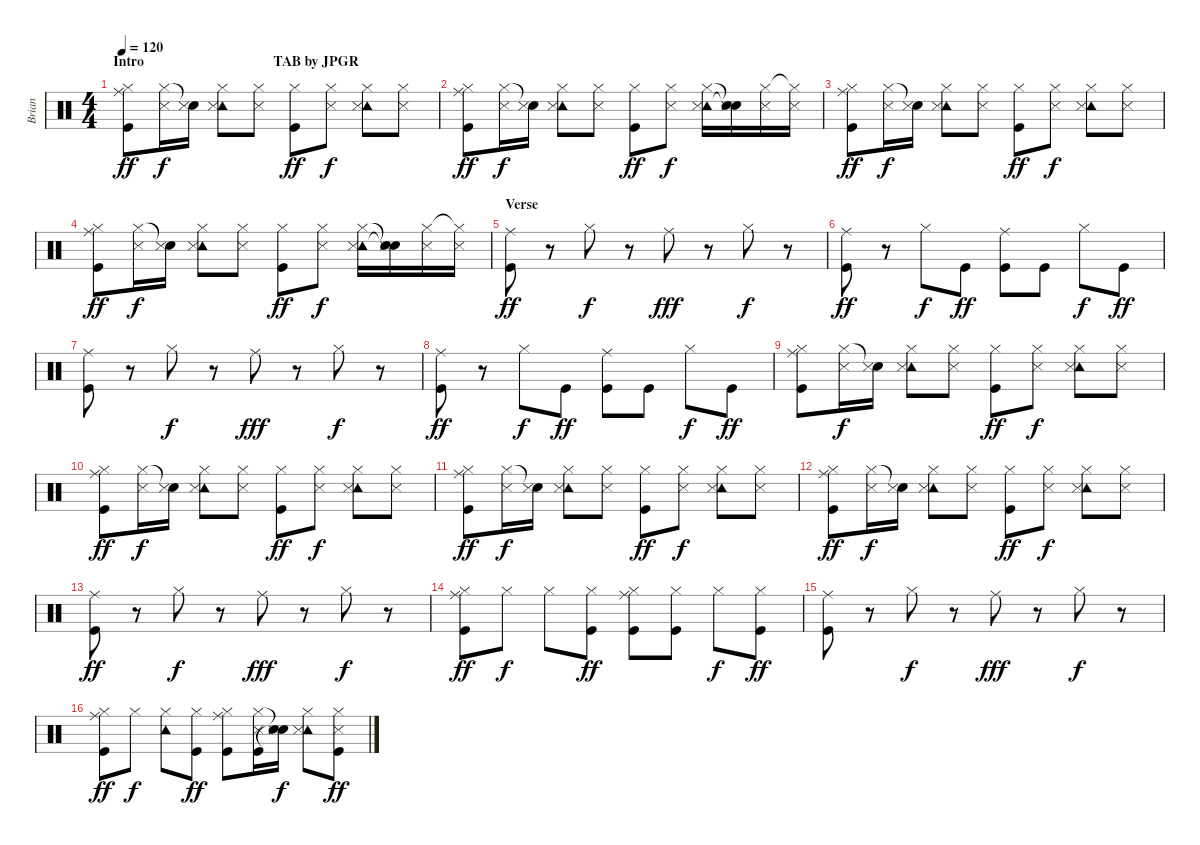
\track ("Brian" "Brian") {instrument percussion}
\staff {score}
\articulation defaults
\ts (4 4)
\section ("" "Intro                                     TAB by JPGR")
\tempo 120
\clef neutral
\ks c
("Ride (middle)" "Hi-Hat (closed)" "Kick (hit)").8{dy ff} ("Hi-Hat (closed)" "Snare (side stick) 3").16{dy f} ("Snare (hit)"{t} "Snare (side stick) 3").16 ("Tambourine (hit)" "Hi-Hat (closed)" "Snare (side stick) 3").8 ("Hi-Hat (closed)" "Snare (side stick) 3").8 ("Hi-Hat (closed)" "Kick (hit)").8{dy ff} ("Hi-Hat (closed)" "Snare (side stick) 3").8{dy f} ("Tambourine (hit)" "Hi-Hat (closed)" "Snare (side stick) 3").8 ("Hi-Hat (closed)" "Snare (side stick) 3").8 |
("Ride (middle)" "Hi-Hat (closed)" "Kick (hit)").8{dy ff} ("Hi-Hat (closed)" "Snare (side stick) 3").16{dy f} ("Snare (hit)"{t} "Snare (side stick) 3").16 ("Tambourine (hit)" "Hi-Hat (closed)" "Snare (side stick) 3").8 ("Hi-Hat (closed)" "Snare (side stick) 3").8 ("Hi-Hat (closed)" "Kick (hit)").8{dy ff} ("Hi-Hat (closed)" "Snare (side stick) 3").8{dy f} ("Tambourine (hit)" "Hi-Hat (closed)" "Snare (side stick) 3").16 ("Snare (hit)"{t} "Snare (hit)"{t} "Snare (side stick) 3").16 ("Hi-Hat (closed)" "Snare (side stick) 3").16 ("Hi-Hat (closed)"{t} "Snare (side stick) 3").16 |
("Ride (middle)" "Hi-Hat (closed)" "Kick (hit)").8{dy ff} ("Hi-Hat (closed)" "Snare (side stick) 3").16{dy f} ("Snare (hit)"{t} "Snare (side stick) 3").16 ("Tambourine (hit)" "Hi-Hat (closed)" "Snare (side stick) 3").8 ("Hi-Hat (closed)" "Snare (side stick) 3").8 ("Hi-Hat (closed)" "Kick (hit)").8{dy ff} ("Hi-Hat (closed)" "Snare (side stick) 3").8{dy f} ("Tambourine (hit)" "Hi-Hat (closed)" "Snare (side stick) 3").8 ("Hi-Hat (closed)" "Snare (side stick) 3").8 |
("Ride (middle)" "Hi-Hat (closed)" "Kick (hit)").8{dy ff} ("Hi-Hat (closed)" "Snare (side stick) 3").16{dy f} ("Snare (hit)"{t} "Snare (side stick) 3").16 ("Tambourine (hit)" "Hi-Hat (closed)" "Snare (side stick) 3").8 ("Hi-Hat (closed)" "Snare (side stick) 3").8 ("Hi-Hat (closed)" "Kick (hit)").8{dy ff} ("Hi-Hat (closed)" "Snare (side stick) 3").8{dy f} ("Tambourine (hit)" "Hi-Hat (closed)" "Snare (side stick) 3").16 ("Snare (hit)"{t} "Snare (hit)"{t} "Snare (side stick) 3").16 ("Hi-Hat (closed)" "Snare (side stick) 3").16 ("Hi-Hat (closed)"{t} "Snare (side stick) 3").16 |
\section ("" "Verse")
("Ride (middle)" "Kick (hit)").8{dy ff} r.8 "Hi-Hat (closed)".8{dy f} r.8 "Ride (middle)".8{dy fff} r.8 "Hi-Hat (closed)".8{dy f} r.8 |
("Ride (middle)" "Kick (hit)").8{dy ff} r.8 "Hi-Hat (closed)".8{dy f} "Kick (hit)".8{dy ff} ("Ride (middle)" "Kick (hit)").8 "Kick (hit)".8 "Hi-Hat (closed)".8{dy f} "Kick (hit)".8{dy ff} |
("Ride (middle)" "Kick (hit)").8 r.8 "Hi-Hat (closed)".8{dy f} r.8 "Ride (middle)".8{dy fff} r.8 "Hi-Hat (closed)".8{dy f} r.8 |
("Ride (middle)" "Kick (hit)").8{dy ff} r.8 "Hi-Hat (closed)".8{dy f} "Kick (hit)".8{dy ff} ("Ride (middle)" "Kick (hit)").8 "Kick (hit)".8 "Hi-Hat (closed)".8{dy f} "Kick (hit)".8{dy ff} |
("Ride (middle)" "Hi-Hat (closed)" "Kick (hit)").8 ("Hi-Hat (closed)" "Snare (side stick) 3").16{dy f} ("Snare (hit)"{t} "Snare (side stick) 3").16 ("Tambourine (hit)" "Hi-Hat (closed)" "Snare (side stick) 3").8 ("Hi-Hat (closed)" "Snare (side stick) 3").8 ("Hi-Hat (closed)" "Kick (hit)").8{dy ff} ("Hi-Hat (closed)" "Snare (side stick) 3").8{dy f} ("Tambourine (hit)" "Hi-Hat (closed)" "Snare (side stick) 3").8 ("Hi-Hat (closed)" "Snare (side stick) 3").8 |
("Ride (middle)" "Hi-Hat (closed)" "Kick (hit)").8{dy ff} ("Hi-Hat (closed)" "Snare (side stick) 3").16{dy f} ("Snare (hit)"{t} "Snare (side stick) 3").16 ("Tambourine (hit)" "Hi-Hat (closed)" "Snare (side stick) 3").8 ("Hi-Hat (closed)" "Snare (side stick) 3").8 ("Hi-Hat (closed)" "Kick (hit)").8{dy ff} ("Hi-Hat (closed)" "Snare (side stick) 3").8{dy f} ("Tambourine (hit)" "Hi-Hat (closed)" "Snare (side stick) 3").8 ("Hi-Hat (closed)" "Snare (side stick) 3").8 |
("Ride (middle)" "Hi-Hat (closed)" "Kick (hit)").8{dy ff} ("Hi-Hat (closed)" "Snare (side stick) 3").16{dy f} ("Snare (hit)"{t} "Snare (side stick) 3").16 ("Tambourine (hit)" "Hi-Hat (closed)" "Snare (side stick) 3").8 ("Hi-Hat (closed)" "Snare (side stick) 3").8 ("Hi-Hat (closed)" "Kick (hit)").8{dy ff} ("Hi-Hat (closed)" "Snare (side stick) 3").8{dy f} ("Tambourine (hit)" "Hi-Hat (closed)" "Snare (side stick) 3").8 ("Hi-Hat (closed)" "Snare (side stick) 3").8 |
("Ride (middle)" "Hi-Hat (closed)" "Kick (hit)").8{dy ff} ("Hi-Hat (closed)" "Snare (side stick) 3").16{dy f} ("Snare (hit)"{t} "Snare (side stick) 3").16 ("Tambourine (hit)" "Hi-Hat (closed)" "Snare (side stick) 3").8 ("Hi-Hat (closed)" "Snare (side stick) 3").8 ("Hi-Hat (closed)" "Kick (hit)").8{dy ff} ("Hi-Hat (closed)" "Snare (side stick) 3").8{dy f} ("Tambourine (hit)" "Hi-Hat (closed)" "Snare (side stick) 3").8 ("Hi-Hat (closed)" "Snare (side stick) 3").8 |
("Ride (middle)" "Kick (hit)").8{dy ff} r.8 "Hi-Hat (closed)".8{dy f} r.8 "Ride (middle)".8{dy fff} r.8 "Hi-Hat (closed)".8{dy f} r.8 |
("Ride (middle)" "Hi-Hat (closed)" "Kick (hit)").8{dy ff} "Hi-Hat (closed)".8{dy f} "Hi-Hat (closed)".8 ("Hi-Hat (closed)" "Kick (hit)").8{dy ff} ("Ride (middle)" "Hi-Hat (closed)" "Kick (hit)").8 ("Hi-Hat (closed)" "Kick (hit)").8 "Hi-Hat (closed)".8{dy f} ("Hi-Hat (closed)" "Kick (hit)").8{dy ff} |
("Ride (middle)" "Kick (hit)").8 r.8 "Hi-Hat (closed)".8{dy f} r.8 "Ride (middle)".8{dy fff} r.8 "Hi-Hat (closed)".8{dy f} r.8 |
("Ride (middle)" "Hi-Hat (closed)" "Kick (hit)").8{dy ff} "Hi-Hat (closed)".8{dy f} ("Tambourine (hit)" "Hi-Hat (closed)").8 ("Hi-Hat (closed)" "Kick (hit)").8{dy ff} ("Ride (middle)" "Hi-Hat (closed)" "Kick (hit)").8 ("Hi-Hat (closed)" "Snare (side stick) 3" "Kick (hit)").16 ("Snare (hit)"{t} "Snare (side stick) 3" "Snare (hit)"{t}).16{dy f} ("Tambourine (hit)" "Hi-Hat (closed)" "Snare (side stick) 3").8 ("Hi-Hat (closed)" "Snare (side stick) 3" "Kick (hit)").8{dy ff}
